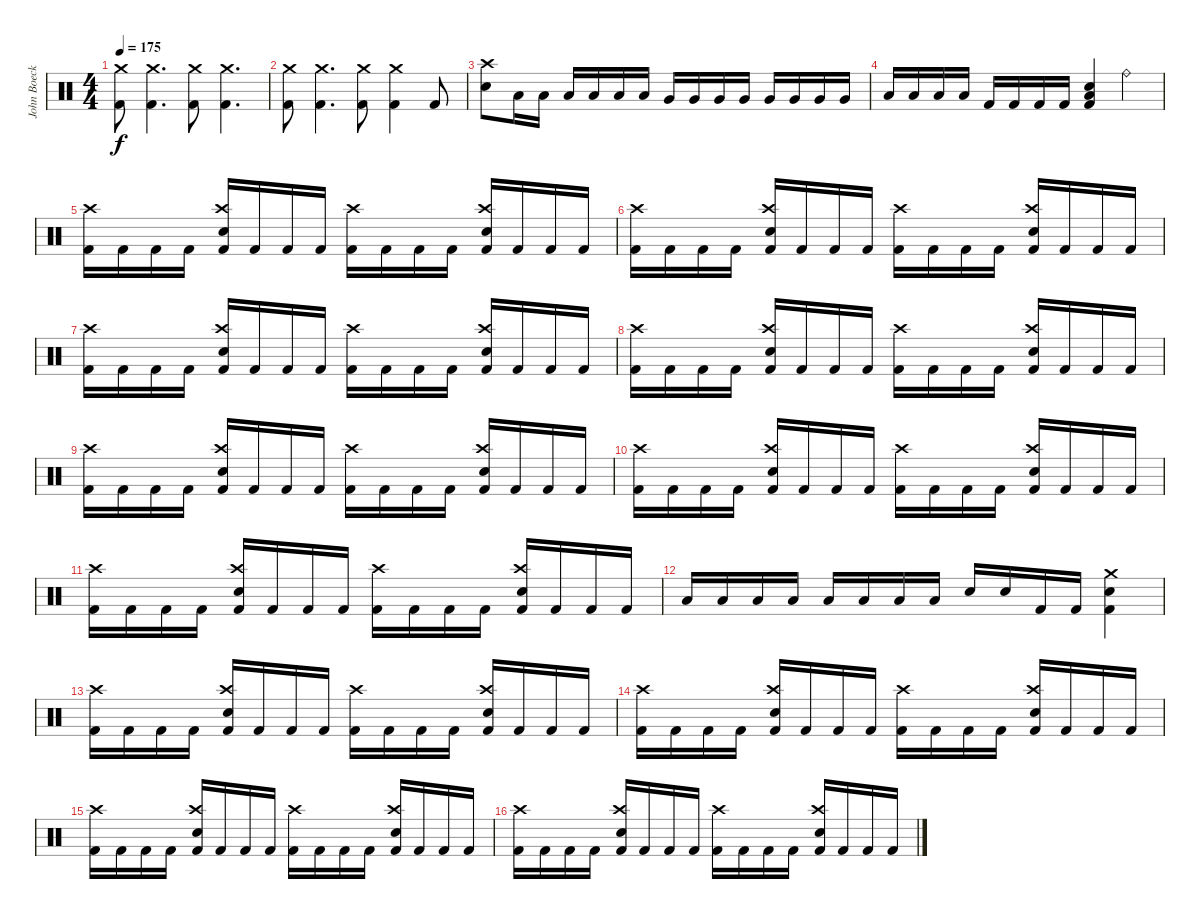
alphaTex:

\track ("John Boecklin (Drums)" "John Boeck") {instrument percussion}
\staff {score}
\articulation defaults
\ts (4 4)
\tempo 175
\clef neutral
\ks c
("Crash medium (hit)" "Kick (hit) 2").8{dy f} ("Crash medium (hit)" "Kick (hit) 2").4{d} ("Crash medium (hit)" "Kick (hit) 2").8 ("Crash medium (hit)" "Kick (hit) 2").4{d} |
("Crash medium (hit)" "Kick (hit) 2").8 ("Crash medium (hit)" "Kick (hit) 2").4{d} ("Crash medium (hit)" "Kick (hit) 2").8 ("Crash medium (hit)" "Kick (hit) 2").4 "Kick (hit) 2".8 |
("Crash high (hit)" "Snare (hit) 2").8 "Low Tom (hit)".16 "Low Tom (hit)".16 "Low Tom (hit)".16 "Low Tom (hit)".16 "Low Tom (hit)".16 "Low Tom (hit)".16 "Very Low Tom (hit)".16 "Very Low Tom (hit)".16 "Very Low Tom (hit)".16 "Very Low Tom (hit)".16 "Very Low Tom (hit)".16 "Very Low Tom (hit)".16 "Very Low Tom (hit)".16 "Very Low Tom (hit)".16 |
"Low Floor Tom (hit)".16 "Low Floor Tom (hit)".16 "Low Floor Tom (hit)".16 "Low Floor Tom (hit)".16 "Kick (hit) 2".16 "Kick (hit) 2".16 "Kick (hit) 2".16 "Kick (hit) 2".16 ("Kick (hit) 2" "Low Floor Tom (hit)" "Snare (hit) 2").4 "Ride (bell)".4 |
("Crash high (hit)" "Kick (hit) 2").16 "Kick (hit) 2".16 "Kick (hit) 2".16 "Kick (hit) 2".16 ("Crash high (hit)" "Snare (hit) 2" "Kick (hit) 2").16 "Kick (hit) 2".16 "Kick (hit) 2".16 "Kick (hit) 2".16 ("Crash high (hit)" "Kick (hit) 2").16 "Kick (hit) 2".16 "Kick (hit) 2".16 "Kick (hit) 2".16 ("Crash high (hit)" "Snare (hit) 2" "Kick (hit) 2").16 "Kick (hit) 2".16 "Kick (hit) 2".16 "Kick (hit) 2".16 |
("Crash high (hit)" "Kick (hit) 2").16 "Kick (hit) 2".16 "Kick (hit) 2".16 "Kick (hit) 2".16 ("Crash high (hit)" "Snare (hit) 2" "Kick (hit) 2").16 "Kick (hit) 2".16 "Kick (hit) 2".16 "Kick (hit) 2".16 ("Crash high (hit)" "Kick (hit) 2").16 "Kick (hit) 2".16 "Kick (hit) 2".16 "Kick (hit) 2".16 ("Crash high (hit)" "Snare (hit) 2" "Kick (hit) 2").16 "Kick (hit) 2".16 "Kick (hit) 2".16 "Kick (hit) 2".16 |
("Crash high (hit)" "Kick (hit) 2").16 "Kick (hit) 2".16 "Kick (hit) 2".16 "Kick (hit) 2".16 ("Crash high (hit)" "Snare (hit) 2" "Kick (hit) 2").16 "Kick (hit) 2".16 "Kick (hit) 2".16 "Kick (hit) 2".16 ("Crash high (hit)" "Kick (hit) 2").16 "Kick (hit) 2".16 "Kick (hit) 2".16 "Kick (hit) 2".16 ("Crash high (hit)" "Snare (hit) 2" "Kick (hit) 2").16 "Kick (hit) 2".16 "Kick (hit) 2".16 "Kick (hit) 2".16 |
("Crash high (hit)" "Kick (hit) 2").16 "Kick (hit) 2".16 "Kick (hit) 2".16 "Kick (hit) 2".16 ("Crash high (hit)" "Snare (hit) 2" "Kick (hit) 2").16 "Kick (hit) 2".16 "Kick (hit) 2".16 "Kick (hit) 2".16 ("Crash high (hit)" "Kick (hit) 2").16 "Kick (hit) 2".16 "Kick (hit) 2".16 "Kick (hit) 2".16 ("Crash high (hit)" "Snare (hit) 2" "Kick (hit) 2").16 "Kick (hit) 2".16 "Kick (hit) 2".16 "Kick (hit) 2".16 |
("Crash high (hit)" "Kick (hit) 2").16 "Kick (hit) 2".16 "Kick (hit) 2".16 "Kick (hit) 2".16 ("Crash high (hit)" "Snare (hit) 2" "Kick (hit) 2").16 "Kick (hit) 2".16 "Kick (hit) 2".16 "Kick (hit) 2".16 ("Crash high (hit)" "Kick (hit) 2").16 "Kick (hit) 2".16 "Kick (hit) 2".16 "Kick (hit) 2".16 ("Crash high (hit)" "Snare (hit) 2" "Kick (hit) 2").16 "Kick (hit) 2".16 "Kick (hit) 2".16 "Kick (hit) 2".16 |
("Crash high (hit)" "Kick (hit) 2").16 "Kick (hit) 2".16 "Kick (hit) 2".16 "Kick (hit) 2".16 ("Crash high (hit)" "Snare (hit) 2" "Kick (hit) 2").16 "Kick (hit) 2".16 "Kick (hit) 2".16 "Kick (hit) 2".16 ("Crash high (hit)" "Kick (hit) 2").16 "Kick (hit) 2".16 "Kick (hit) 2".16 "Kick (hit) 2".16 ("Crash high (hit)" "Snare (hit) 2" "Kick (hit) 2").16 "Kick (hit) 2".16 "Kick (hit) 2".16 "Kick (hit) 2".16 |
("Crash high (hit)" "Kick (hit) 2").16 "Kick (hit) 2".16 "Kick (hit) 2".16 "Kick (hit) 2".16 ("Crash high (hit)" "Snare (hit) 2" "Kick (hit) 2").16 "Kick (hit) 2".16 "Kick (hit) 2".16 "Kick (hit) 2".16 ("Crash high (hit)" "Kick (hit) 2").16 "Kick (hit) 2".16 "Kick (hit) 2".16 "Kick (hit) 2".16 ("Crash high (hit)" "Snare (hit) 2" "Kick (hit) 2").16 "Kick (hit) 2".16 "Kick (hit) 2".16 "Kick (hit) 2".16 |
"Low Tom (hit)".16 "Low Tom (hit)".16 "Low Tom (hit)".16 "Low Tom (hit)".16 "Low Tom (hit)".16 "Low Tom (hit)".16 "Low Tom (hit)".16 "Low Tom (hit)".16 "Snare (hit) 2".16 "Snare (hit) 2".16 "Kick (hit) 2".16 "Kick (hit) 2".16 ("Crash medium (hit)" "Kick (hit) 2" "Snare (hit) 2").4 |
("Crash high (hit)" "Kick (hit) 2").16 "Kick (hit) 2".16 "Kick (hit) 2".16 "Kick (hit) 2".16 ("Crash high (hit)" "Snare (hit) 2" "Kick (hit) 2").16 "Kick (hit) 2".16 "Kick (hit) 2".16 "Kick (hit) 2".16 ("Crash high (hit)" "Kick (hit) 2").16 "Kick (hit) 2".16 "Kick (hit) 2".16 "Kick (hit) 2".16 ("Crash high (hit)" "Snare (hit) 2" "Kick (hit) 2").16 "Kick (hit) 2".16 "Kick (hit) 2".16 "Kick (hit) 2".16 |
("Crash high (hit)" "Kick (hit) 2").16 "Kick (hit) 2".16 "Kick (hit) 2".16 "Kick (hit) 2".16 ("Crash high (hit)" "Snare (hit) 2" "Kick (hit) 2").16 "Kick (hit) 2".16 "Kick (hit) 2".16 "Kick (hit) 2".16 ("Crash high (hit)" "Kick (hit) 2").16 "Kick (hit) 2".16 "Kick (hit) 2".16 "Kick (hit) 2".16 ("Crash high (hit)" "Snare (hit) 2" "Kick (hit) 2").16 "Kick (hit) 2".16 "Kick (hit) 2".16 "Kick (hit) 2".16 |
("Crash high (hit)" "Kick (hit) 2").16 "Kick (hit) 2".16 "Kick (hit) 2".16 "Kick (hit) 2".16 ("Crash high (hit)" "Snare (hit) 2" "Kick (hit) 2").16 "Kick (hit) 2".16 "Kick (hit) 2".16 "Kick (hit) 2".16 ("Crash high (hit)" "Kick (hit) 2").16 "Kick (hit) 2".16 "Kick (hit) 2".16 "Kick (hit) 2".16 ("Crash high (hit)" "Snare (hit) 2" "Kick (hit) 2").16 "Kick (hit) 2".16 "Kick (hit) 2".16 "Kick (hit) 2".16 |
("Crash high (hit)" "Kick (hit) 2").16 "Kick (hit) 2".16 "Kick (hit) 2".16 "Kick (hit) 2".16 ("Crash high (hit)" "Snare (hit) 2" "Kick (hit) 2").16 "Kick (hit) 2".16 "Kick (hit) 2".16 "Kick (hit) 2".16 ("Crash high (hit)" "Kick (hit) 2").16 "Kick (hit) 2".16 "Kick (hit) 2".16 "Kick (hit) 2".16 ("Crash high (hit)" "Snare (hit) 2" "Kick (hit) 2").16 "Kick (hit) 2".16 "Kick (hit) 2".16 "Kick (hit) 2".16
